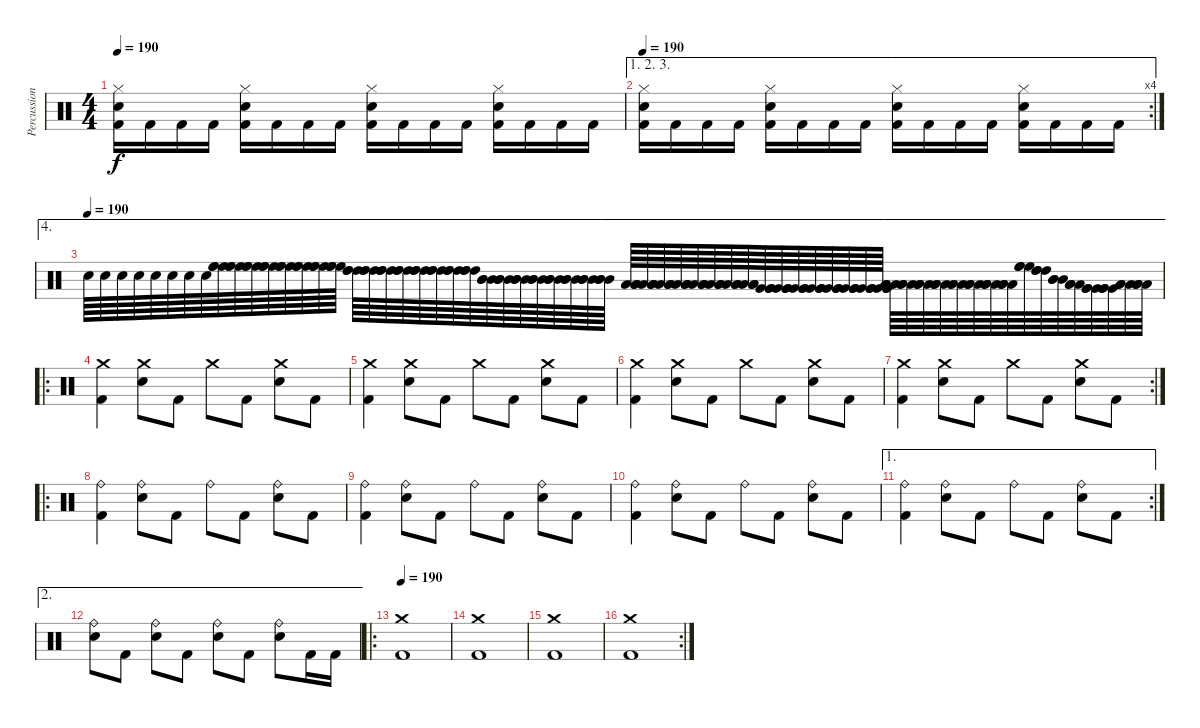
\track ("Percussion" "Percussion") {instrument percussion}
\staff {score}
\articulation defaults
\ts (4 4)
\tempo 190
\clef neutral
\ks c
("Hi-Hat (closed)" "Electric Snare (hit)" "Kick (hit) 2").16{dy f} "Kick (hit) 2".16 "Kick (hit) 2".16 "Kick (hit) 2".16 ("Hi-Hat (closed)" "Electric Snare (hit)" "Kick (hit) 2").16 "Kick (hit) 2".16 "Kick (hit) 2".16 "Kick (hit) 2".16 ("Hi-Hat (closed)" "Electric Snare (hit)" "Kick (hit) 2").16 "Kick (hit) 2".16 "Kick (hit) 2".16 "Kick (hit) 2".16 ("Hi-Hat (closed)" "Electric Snare (hit)" "Kick (hit) 2").16 "Kick (hit) 2".16 "Kick (hit) 2".16 "Kick (hit) 2".16 |
\ae (1 2 3)
\rc 4
\tempo 190
("Hi-Hat (closed)" "Electric Snare (hit)" "Kick (hit) 2").16 "Kick (hit) 2".16 "Kick (hit) 2".16 "Kick (hit) 2".16 ("Hi-Hat (closed)" "Electric Snare (hit)" "Kick (hit) 2").16 "Kick (hit) 2".16 "Kick (hit) 2".16 "Kick (hit) 2".16 ("Hi-Hat (closed)" "Electric Snare (hit)" "Kick (hit) 2").16 "Kick (hit) 2".16 "Kick (hit) 2".16 "Kick (hit) 2".16 ("Hi-Hat (closed)" "Electric Snare (hit)" "Kick (hit) 2").16 "Kick (hit) 2".16 "Kick (hit) 2".16 "Kick (hit) 2".16 |
\ae 4
\tempo (190)
"Electric Snare (hit)".64 "Electric Snare (hit)".64 "Electric Snare (hit)".64 "Electric Snare (hit)".64 "Electric Snare (hit)".64 "Electric Snare (hit)".64 "Electric Snare (hit)".64 "Electric Snare (hit)".64 ("High Floor Tom (hit)" "High Floor Tom (hit)" "High Floor Tom (hit)").64 ("High Floor Tom (hit)" "High Floor Tom (hit)" "High Floor Tom (hit)").64 ("High Floor Tom (hit)" "High Floor Tom (hit)" "High Floor Tom (hit)").64 ("High Floor Tom (hit)" "High Floor Tom (hit)" "High Floor Tom (hit)").64 ("High Floor Tom (hit)" "High Floor Tom (hit)" "High Floor Tom (hit)").64 ("High Floor Tom (hit)" "High Floor Tom (hit)" "High Floor Tom (hit)").64 ("High Floor Tom (hit)" "High Floor Tom (hit)" "High Floor Tom (hit)").64 ("High Floor Tom (hit)" "High Floor Tom (hit)" "High Floor Tom (hit)").64 ("High Tom (hit)" "High Tom (hit)" "High Tom (hit)").64 ("High Tom (hit)" "High Tom (hit)" "High Tom (hit)").64 ("High Tom (hit)" "High Tom (hit)" "High Tom (hit)").64 ("High Tom (hit)" "High Tom (hit)" "High Tom (hit)").64 ("High Tom (hit)" "High Tom (hit)" "High Tom (hit)").64 ("High Tom (hit)" "High Tom (hit)" "High Tom (hit)").64 ("High Tom (hit)" "High Tom (hit)" "High Tom (hit)").64 ("High Tom (hit)" "High Tom (hit)" "High Tom (hit)").64 ("Mid Tom (hit)" "Mid Tom (hit)" "Mid Tom (hit)").64 ("Mid Tom (hit)" "Mid Tom (hit)" "Mid Tom (hit)").64 ("Mid Tom (hit)" "Mid Tom (hit)" "Mid Tom (hit)").64 ("Mid Tom (hit)" "Mid Tom (hit)" "Mid Tom (hit)").64 ("Mid Tom (hit)" "Mid Tom (hit)" "Mid Tom (hit)").64 ("Mid Tom (hit)" "Mid Tom (hit)" "Mid Tom (hit)").64 ("Mid Tom (hit)" "Mid Tom (hit)" "Mid Tom (hit)").64 ("Mid Tom (hit)" "Mid Tom (hit)" "Mid Tom (hit)").64 ("Low Tom (hit)" "Low Tom (hit)" "Low Tom (hit)").64 ("Low Tom (hit)" "Low Tom (hit)" "Low Tom (hit)").64 ("Low Tom (hit)" "Low Tom (hit)" "Low Tom (hit)").64 ("Low Tom (hit)" "Low Tom (hit)" "Low Tom (hit)").64 ("Low Tom (hit)" "Low Tom (hit)" "Low Tom (hit)").64 ("Low Tom (hit)" "Low Tom (hit)" "Low Tom (hit)").64 ("Low Tom (hit)" "Low Tom (hit)" "Low Tom (hit)").64 ("Low Tom (hit)" "Low Tom (hit)" "Low Tom (hit)").64 ("Very Low Tom (hit)" "Very Low Tom (hit)" "Very Low Tom (hit)").64 ("Very Low Tom (hit)" "Very Low Tom (hit)" "Very Low Tom (hit)").64 ("Very Low Tom (hit)" "Very Low Tom (hit)" "Very Low Tom (hit)").64 ("Very Low Tom (hit)" "Very Low Tom (hit)" "Very Low Tom (hit)").64 ("Very Low Tom (hit)" "Very Low Tom (hit)" "Very Low Tom (hit)").64 ("Very Low Tom (hit)" "Very Low Tom (hit)" "Very Low Tom (hit)").64 ("Very Low Tom (hit)" "Very Low Tom (hit)" "Very Low Tom (hit)").64 ("Very Low Tom (hit)" "Very Low Tom (hit)" "Very Low Tom (hit)").64 ("Low Floor Tom (hit)" "Low Floor Tom (hit)" "Low Floor Tom (hit)").64 ("Low Floor Tom (hit)" "Low Floor Tom (hit)" "Low Floor Tom (hit)").64 ("Low Floor Tom (hit)" "Low Floor Tom (hit)" "Low Floor Tom (hit)").64 ("Low Floor Tom (hit)" "Low Floor Tom (hit)" "Low Floor Tom (hit)").64 ("Low Floor Tom (hit)" "Low Floor Tom (hit)" "Low Floor Tom (hit)").64 ("Low Floor Tom (hit)" "Low Floor Tom (hit)" "Low Floor Tom (hit)").64 ("Low Floor Tom (hit)" "Low Floor Tom (hit)" "Low Floor Tom (hit)").64 ("Low Floor Tom (hit)" "Low Floor Tom (hit)" "Low Floor Tom (hit)").64 ("High Floor Tom (hit)" "High Floor Tom (hit)" "High Floor Tom (hit)").64 ("High Tom (hit)" "High Tom (hit)" "High Tom (hit)").64 ("Mid Tom (hit)" "Mid Tom (hit)" "Mid Tom (hit)").64 ("Low Tom (hit)" "Low Tom (hit)" "Low Tom (hit)").64 ("Very Low Tom (hit)" "Very Low Tom (hit)" "Very Low Tom (hit)").64 ("Very Low Tom (hit)" "Very Low Tom (hit)" "Very Low Tom (hit)").64 ("Low Floor Tom (hit)" "Low Floor Tom (hit)" "Low Floor Tom (hit)").64 ("Low Floor Tom (hit)" "Low Floor Tom (hit)" "Low Floor Tom (hit)").64 |
\ro
("Crash medium (hit)" "Kick (hit) 2").4 ("Crash medium (hit)" "Electric Snare (hit)").8 "Kick (hit) 2".8 "Crash medium (hit)".8 "Kick (hit) 2".8 ("Crash medium (hit)" "Electric Snare (hit)").8 "Kick (hit) 2".8 |
("Crash medium (hit)" "Kick (hit) 2").4 ("Crash medium (hit)" "Electric Snare (hit)").8 "Kick (hit) 2".8 "Crash medium (hit)".8 "Kick (hit) 2".8 ("Crash medium (hit)" "Electric Snare (hit)").8 "Kick (hit) 2".8 |
("Crash medium (hit)" "Kick (hit) 2").4 ("Crash medium (hit)" "Electric Snare (hit)").8 "Kick (hit) 2".8 "Crash medium (hit)".8 "Kick (hit) 2".8 ("Crash medium (hit)" "Electric Snare (hit)").8 "Kick (hit) 2".8 |
\rc 2
("Crash medium (hit)" "Kick (hit) 2").4 ("Crash medium (hit)" "Electric Snare (hit)").8 "Kick (hit) 2".8 "Crash medium (hit)".8 "Kick (hit) 2".8 ("Crash medium (hit)" "Electric Snare (hit)").8 "Kick (hit) 2".8 |
\ro
("Ride (bell)" "Kick (hit) 2").4 ("Ride (bell)" "Electric Snare (hit)").8 "Kick (hit) 2".8 "Ride (bell)".8 "Kick (hit) 2".8 ("Ride (bell)" "Electric Snare (hit)").8 "Kick (hit) 2".8 |
("Ride (bell)" "Kick (hit) 2").4 ("Ride (bell)" "Electric Snare (hit)").8 "Kick (hit) 2".8 "Ride (bell)".8 "Kick (hit) 2".8 ("Ride (bell)" "Electric Snare (hit)").8 "Kick (hit) 2".8 |
("Ride (bell)" "Kick (hit) 2").4 ("Ride (bell)" "Electric Snare (hit)").8 "Kick (hit) 2".8 "Ride (bell)".8 "Kick (hit) 2".8 ("Ride (bell)" "Electric Snare (hit)").8 "Kick (hit) 2".8 |
\ae 1
\rc 2
("Ride (bell)" "Kick (hit) 2").4 ("Ride (bell)" "Electric Snare (hit)").8 "Kick (hit) 2".8 "Ride (bell)".8 "Kick (hit) 2".8 ("Ride (bell)" "Electric Snare (hit)").8 "Kick (hit) 2".8 |
\ae 2
("Ride (bell)" "Electric Snare (hit)").8 "Kick (hit) 2".8 ("Ride (bell)" "Electric Snare (hit)").8 "Kick (hit) 2".8 ("Ride (bell)" "Electric Snare (hit)").8 "Kick (hit) 2".8 ("Ride (bell)" "Electric Snare (hit)").8 "Kick (hit) 2".16 "Kick (hit) 2".16 |
\ro
\tempo 190
("Crash medium (hit)" "Kick (hit) 2").1 |
("Crash medium (hit)" "Kick (hit) 2").1 |
("Crash medium (hit)" "Kick (hit) 2").1 |
\rc 2
("Crash medium (hit)" "Kick (hit) 2").1
